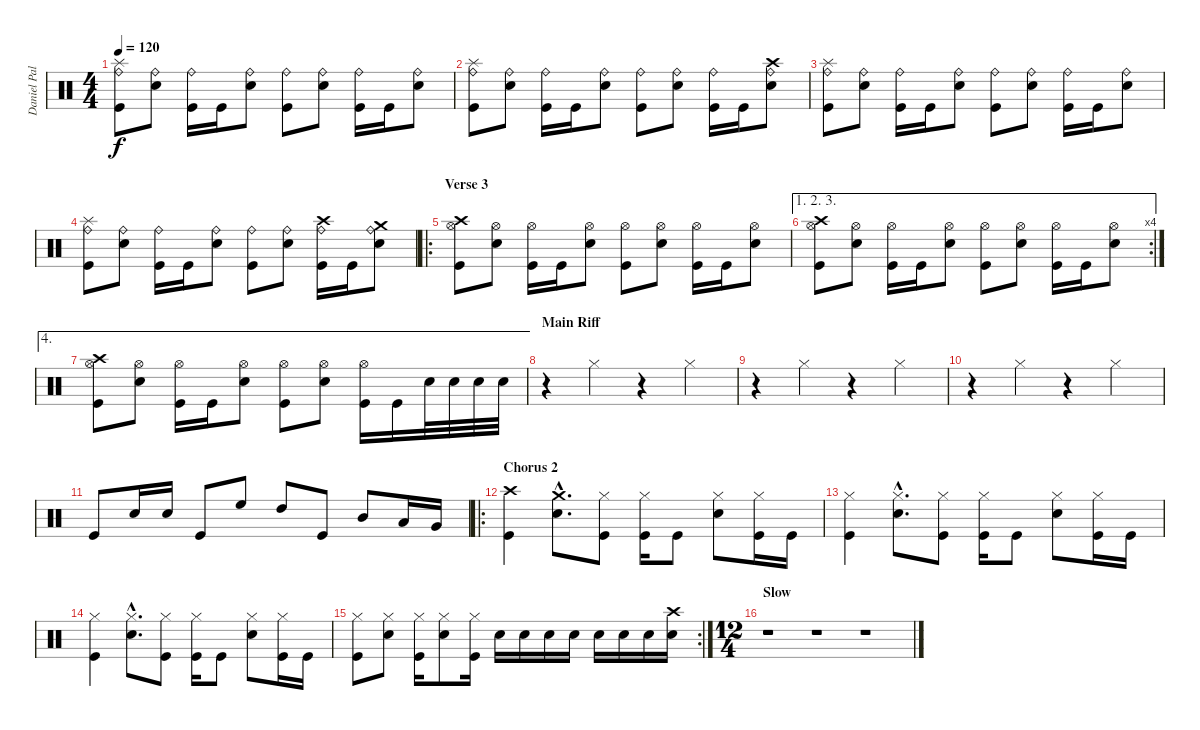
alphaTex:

\track ("Daniel Pal" "Daniel Pal") {instrument percussion}
\staff {score}
\articulation defaults
\ts (4 4)
\tempo 120
\clef neutral
\ks c
("Splash (hit)" "Ride (bell)" "Kick (hit)").8{dy f} ("Ride (bell)" "Electric Snare (hit)").8 ("Ride (bell)" "Kick (hit)").16 "Kick (hit)".16 ("Ride (bell)" "Electric Snare (hit)").8 ("Ride (bell)" "Kick (hit)").8 ("Ride (bell)" "Electric Snare (hit)").8 ("Ride (bell)" "Kick (hit)").16 "Kick (hit)".16 ("Ride (bell)" "Electric Snare (hit)").8 |
("Splash (hit)" "Ride (bell)" "Kick (hit)").8 ("Ride (bell)" "Electric Snare (hit)").8 ("Ride (bell)" "Kick (hit)").16 "Kick (hit)".16 ("Ride (bell)" "Electric Snare (hit)").8 ("Ride (bell)" "Kick (hit)").8 ("Ride (bell)" "Electric Snare (hit)").8 ("Ride (bell)" "Kick (hit)").16 "Kick (hit)".16 ("Crash high (hit)" "Ride (bell)" "Electric Snare (hit)").8 |
("Splash (hit)" "Ride (bell)" "Kick (hit)").8 ("Ride (bell)" "Electric Snare (hit)").8 ("Ride (bell)" "Kick (hit)").16 "Kick (hit)".16 ("Ride (bell)" "Electric Snare (hit)").8 ("Ride (bell)" "Kick (hit)").8 ("Ride (bell)" "Electric Snare (hit)").8 ("Ride (bell)" "Kick (hit)").16 "Kick (hit)".16 ("Ride (bell)" "Electric Snare (hit)").8 |
("Splash (hit)" "Ride (bell)" "Kick (hit)").8 ("Ride (bell)" "Electric Snare (hit)").8 ("Ride (bell)" "Kick (hit)").16 "Kick (hit)".16 ("Ride (bell)" "Electric Snare (hit)").8 ("Ride (bell)" "Kick (hit)").8 ("Ride (bell)" "Electric Snare (hit)").8 ("Crash high (hit)" "Ride (bell)" "Kick (hit)").16 "Kick (hit)".16 ("Crash medium (hit)" "Ride (bell)" "Electric Snare (hit)").8 |
\ro
\section ("" "Verse 3")
("Crash high (hit)" "Hi-Hat (open)" "Kick (hit)").8 ("Hi-Hat (open)" "Electric Snare (hit)").8 ("Hi-Hat (open)" "Kick (hit)").16 "Kick (hit)".16 ("Hi-Hat (open)" "Electric Snare (hit)").8 ("Hi-Hat (open)" "Kick (hit)").8 ("Hi-Hat (open)" "Electric Snare (hit)").8 ("Hi-Hat (open)" "Kick (hit)").16 "Kick (hit)".16 ("Hi-Hat (open)" "Electric Snare (hit)").8 |
\ae (1 2 3)
\rc 4
("Crash high (hit)" "Hi-Hat (open)" "Kick (hit)").8 ("Hi-Hat (open)" "Electric Snare (hit)").8 ("Hi-Hat (open)" "Kick (hit)").16 "Kick (hit)".16 ("Hi-Hat (open)" "Electric Snare (hit)").8 ("Hi-Hat (open)" "Kick (hit)").8 ("Hi-Hat (open)" "Electric Snare (hit)").8 ("Hi-Hat (open)" "Kick (hit)").16 "Kick (hit)".16 ("Hi-Hat (open)" "Electric Snare (hit)").8 |
\ae 4
("Crash high (hit)" "Hi-Hat (open)" "Kick (hit)").8 ("Hi-Hat (open)" "Electric Snare (hit)").8 ("Hi-Hat (open)" "Kick (hit)").16 "Kick (hit)".16 ("Hi-Hat (open)" "Electric Snare (hit)").8 ("Hi-Hat (open)" "Kick (hit)").8 ("Hi-Hat (open)" "Electric Snare (hit)").8 ("Hi-Hat (open)" "Kick (hit)").16 "Kick (hit)".16 "Electric Snare (hit)".32 "Electric Snare (hit)".32 "Electric Snare (hit)".32 "Electric Snare (hit)".32 |
\section ("" "Main Riff")
r.4 "Hi-Hat (closed)".4 r.4 "Hi-Hat (closed)".4 |
r.4 "Hi-Hat (closed)".4 r.4 "Hi-Hat (closed)".4 |
r.4 "Hi-Hat (closed)".4 r.4 "Hi-Hat (closed)".4 |
"Kick (hit)".8 "Electric Snare (hit)".16 "Electric Snare (hit)".16 "Kick (hit)".8 "High Floor Tom (hit)".8 "High Tom (hit)".8 "Kick (hit)".8 "Mid Tom (hit)".8 "Low Tom (hit)".16 "Very Low Tom (hit)".16 |
\ro
\section ("" "Chorus 2")
("Crash high (hit)" "Kick (hit)").4 ("Crash medium (hit)"{hac} "Electric Snare (hit)"{hac}).8{d} ("Hi-Hat (closed)" "Kick (hit)").8 ("Hi-Hat (closed)" "Kick (hit)").16 "Kick (hit)".8 ("Hi-Hat (closed)" "Electric Snare (hit)").8 ("Hi-Hat (closed)" "Kick (hit)").16 "Kick (hit)".16 |
("Hi-Hat (closed)" "Kick (hit)").4 ("Hi-Hat (closed)"{hac} "Electric Snare (hit)"{hac}).8{d} ("Hi-Hat (closed)" "Kick (hit)").8 ("Hi-Hat (closed)" "Kick (hit)").16 "Kick (hit)".8 ("Hi-Hat (closed)" "Electric Snare (hit)").8 ("Hi-Hat (closed)" "Kick (hit)").16 "Kick (hit)".16 |
("Hi-Hat (closed)" "Kick (hit)").4 ("Hi-Hat (closed)"{hac} "Electric Snare (hit)"{hac}).8{d} ("Hi-Hat (closed)" "Kick (hit)").8 ("Hi-Hat (closed)" "Kick (hit)").16 "Kick (hit)".8 ("Hi-Hat (closed)" "Electric Snare (hit)").8 ("Hi-Hat (closed)" "Kick (hit)").16 "Kick (hit)".16 |
\rc 2
("Hi-Hat (closed)" "Kick (hit)").8 ("Hi-Hat (closed)" "Electric Snare (hit)").8 ("Hi-Hat (closed)" "Kick (hit)").16 ("Hi-Hat (closed)" "Electric Snare (hit)").8 ("Hi-Hat (closed)" "Kick (hit)").16 "Electric Snare (hit)".16 "Electric Snare (hit)".16 "Electric Snare (hit)".16 "Electric Snare (hit)".16 "Electric Snare (hit)".16 "Electric Snare (hit)".16 "Electric Snare (hit)".16 ("Crash high (hit)" "Electric Snare (hit)").16 |
\ts (12 4)
\section ("" "Slow")
r.1 r.1 r.1
